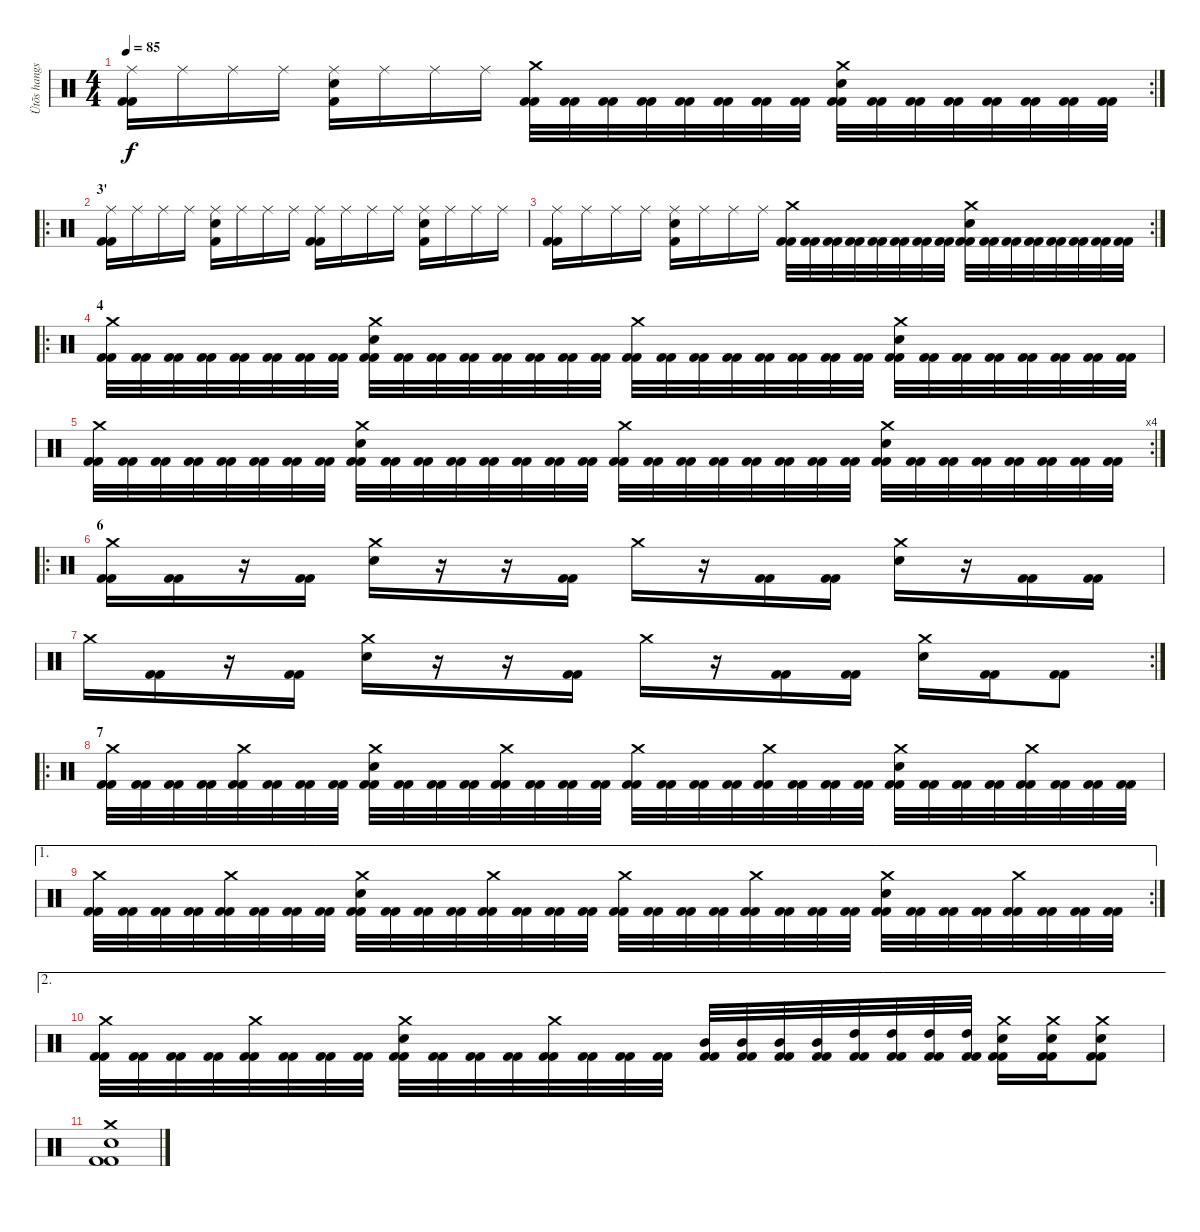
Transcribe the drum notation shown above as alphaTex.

\track ("Ütõs hangszer" "Ütõs hangs") {instrument percussion}
\staff {score}
\articulation defaults
\rc 2
\ts (4 4)
\tempo 85
\clef neutral
\ks c
("Kick (hit) 2" "Kick (hit) 2" "Ride (middle)").16{dy f} "Ride (middle)".16 "Ride (middle)".16 "Ride (middle)".16 ("Snare (hit) 2" "Kick (hit) 2" "Ride (middle)").16 "Ride (middle)".16 "Ride (middle)".16 "Ride (middle)".16 ("Crash medium (hit)" "Kick (hit) 2" "Kick (hit) 2").32 ("Kick (hit) 2" "Kick (hit) 2").32 ("Kick (hit) 2" "Kick (hit) 2").32 ("Kick (hit) 2" "Kick (hit) 2").32 ("Kick (hit) 2" "Kick (hit) 2").32 ("Kick (hit) 2" "Kick (hit) 2").32 ("Kick (hit) 2" "Kick (hit) 2").32 ("Kick (hit) 2" "Kick (hit) 2").32 ("Crash medium (hit)" "Snare (hit) 2" "Kick (hit) 2" "Kick (hit) 2").32 ("Kick (hit) 2" "Kick (hit) 2").32 ("Kick (hit) 2" "Kick (hit) 2").32 ("Kick (hit) 2" "Kick (hit) 2").32 ("Kick (hit) 2" "Kick (hit) 2").32 ("Kick (hit) 2" "Kick (hit) 2").32 ("Kick (hit) 2" "Kick (hit) 2").32 ("Kick (hit) 2" "Kick (hit) 2").32 |
\ro
\section ("" "3'")
("Kick (hit) 2" "Kick (hit) 2" "Ride (middle)").16 "Ride (middle)".16 "Ride (middle)".16 "Ride (middle)".16 ("Snare (hit) 2" "Kick (hit) 2" "Ride (middle)").16 "Ride (middle)".16 "Ride (middle)".16 "Ride (middle)".16 ("Kick (hit) 2" "Kick (hit) 2" "Ride (middle)").16 "Ride (middle)".16 "Ride (middle)".16 "Ride (middle)".16 ("Snare (hit) 2" "Kick (hit) 2" "Ride (middle)").16 "Ride (middle)".16 "Ride (middle)".16 "Ride (middle)".16 |
\rc 2
("Kick (hit) 2" "Kick (hit) 2" "Ride (middle)").16 "Ride (middle)".16 "Ride (middle)".16 "Ride (middle)".16 ("Snare (hit) 2" "Kick (hit) 2" "Ride (middle)").16 "Ride (middle)".16 "Ride (middle)".16 "Ride (middle)".16 ("Crash medium (hit)" "Kick (hit) 2" "Kick (hit) 2").32 ("Kick (hit) 2" "Kick (hit) 2").32 ("Kick (hit) 2" "Kick (hit) 2").32 ("Kick (hit) 2" "Kick (hit) 2").32 ("Kick (hit) 2" "Kick (hit) 2").32 ("Kick (hit) 2" "Kick (hit) 2").32 ("Kick (hit) 2" "Kick (hit) 2").32 ("Kick (hit) 2" "Kick (hit) 2").32 ("Crash medium (hit)" "Snare (hit) 2" "Kick (hit) 2" "Kick (hit) 2").32 ("Kick (hit) 2" "Kick (hit) 2").32 ("Kick (hit) 2" "Kick (hit) 2").32 ("Kick (hit) 2" "Kick (hit) 2").32 ("Kick (hit) 2" "Kick (hit) 2").32 ("Kick (hit) 2" "Kick (hit) 2").32 ("Kick (hit) 2" "Kick (hit) 2").32 ("Kick (hit) 2" "Kick (hit) 2").32 |
\ro
\section ("" "4")
("Crash medium (hit)" "Kick (hit) 2" "Kick (hit) 2").32 ("Kick (hit) 2" "Kick (hit) 2").32 ("Kick (hit) 2" "Kick (hit) 2").32 ("Kick (hit) 2" "Kick (hit) 2").32 ("Kick (hit) 2" "Kick (hit) 2").32 ("Kick (hit) 2" "Kick (hit) 2").32 ("Kick (hit) 2" "Kick (hit) 2").32 ("Kick (hit) 2" "Kick (hit) 2").32 ("Crash medium (hit)" "Snare (hit) 2" "Kick (hit) 2" "Kick (hit) 2").32 ("Kick (hit) 2" "Kick (hit) 2").32 ("Kick (hit) 2" "Kick (hit) 2").32 ("Kick (hit) 2" "Kick (hit) 2").32 ("Kick (hit) 2" "Kick (hit) 2").32 ("Kick (hit) 2" "Kick (hit) 2").32 ("Kick (hit) 2" "Kick (hit) 2").32 ("Kick (hit) 2" "Kick (hit) 2").32 ("Crash medium (hit)" "Kick (hit) 2" "Kick (hit) 2").32 ("Kick (hit) 2" "Kick (hit) 2").32 ("Kick (hit) 2" "Kick (hit) 2").32 ("Kick (hit) 2" "Kick (hit) 2").32 ("Kick (hit) 2" "Kick (hit) 2").32 ("Kick (hit) 2" "Kick (hit) 2").32 ("Kick (hit) 2" "Kick (hit) 2").32 ("Kick (hit) 2" "Kick (hit) 2").32 ("Crash medium (hit)" "Snare (hit) 2" "Kick (hit) 2" "Kick (hit) 2").32 ("Kick (hit) 2" "Kick (hit) 2").32 ("Kick (hit) 2" "Kick (hit) 2").32 ("Kick (hit) 2" "Kick (hit) 2").32 ("Kick (hit) 2" "Kick (hit) 2").32 ("Kick (hit) 2" "Kick (hit) 2").32 ("Kick (hit) 2" "Kick (hit) 2").32 ("Kick (hit) 2" "Kick (hit) 2").32 |
\rc 4
("Crash medium (hit)" "Kick (hit) 2" "Kick (hit) 2").32 ("Kick (hit) 2" "Kick (hit) 2").32 ("Kick (hit) 2" "Kick (hit) 2").32 ("Kick (hit) 2" "Kick (hit) 2").32 ("Kick (hit) 2" "Kick (hit) 2").32 ("Kick (hit) 2" "Kick (hit) 2").32 ("Kick (hit) 2" "Kick (hit) 2").32 ("Kick (hit) 2" "Kick (hit) 2").32 ("Crash medium (hit)" "Snare (hit) 2" "Kick (hit) 2" "Kick (hit) 2").32 ("Kick (hit) 2" "Kick (hit) 2").32 ("Kick (hit) 2" "Kick (hit) 2").32 ("Kick (hit) 2" "Kick (hit) 2").32 ("Kick (hit) 2" "Kick (hit) 2").32 ("Kick (hit) 2" "Kick (hit) 2").32 ("Kick (hit) 2" "Kick (hit) 2").32 ("Kick (hit) 2" "Kick (hit) 2").32 ("Crash medium (hit)" "Kick (hit) 2" "Kick (hit) 2").32 ("Kick (hit) 2" "Kick (hit) 2").32 ("Kick (hit) 2" "Kick (hit) 2").32 ("Kick (hit) 2" "Kick (hit) 2").32 ("Kick (hit) 2" "Kick (hit) 2").32 ("Kick (hit) 2" "Kick (hit) 2").32 ("Kick (hit) 2" "Kick (hit) 2").32 ("Kick (hit) 2" "Kick (hit) 2").32 ("Crash medium (hit)" "Snare (hit) 2" "Kick (hit) 2" "Kick (hit) 2").32 ("Kick (hit) 2" "Kick (hit) 2").32 ("Kick (hit) 2" "Kick (hit) 2").32 ("Kick (hit) 2" "Kick (hit) 2").32 ("Kick (hit) 2" "Kick (hit) 2").32 ("Kick (hit) 2" "Kick (hit) 2").32 ("Kick (hit) 2" "Kick (hit) 2").32 ("Kick (hit) 2" "Kick (hit) 2").32 |
\ro
\section ("" "6")
("Crash medium (hit)" "Kick (hit) 2" "Kick (hit) 2").16 ("Kick (hit) 2" "Kick (hit) 2").16 r.16 ("Kick (hit) 2" "Kick (hit) 2").16 ("Crash medium (hit)" "Snare (hit) 2").16 r.16 r.16 ("Kick (hit) 2" "Kick (hit) 2").16 "Crash medium (hit)".16 r.16 ("Kick (hit) 2" "Kick (hit) 2").16 ("Kick (hit) 2" "Kick (hit) 2").16 ("Crash medium (hit)" "Snare (hit) 2").16 r.16 ("Kick (hit) 2" "Kick (hit) 2").16 ("Kick (hit) 2" "Kick (hit) 2").16 |
\rc 2 "Crash medium (hit)".16
("Kick (hit) 2" "Kick (hit) 2").16 r.16 ("Kick (hit) 2" "Kick (hit) 2").16 ("Crash medium (hit)" "Snare (hit) 2").16 r.16 r.16 ("Kick (hit) 2" "Kick (hit) 2").16 "Crash medium (hit)".16 r.16 ("Kick (hit) 2" "Kick (hit) 2").16 ("Kick (hit) 2" "Kick (hit) 2").16 ("Crash medium (hit)" "Snare (hit) 2").16 ("Kick (hit) 2" "Kick (hit) 2").16 ("Kick (hit) 2" "Kick (hit) 2").8 |
\ro
\section ("" "7")
("Crash medium (hit)" "Kick (hit) 2" "Kick (hit) 2").32 ("Kick (hit) 2" "Kick (hit) 2").32 ("Kick (hit) 2" "Kick (hit) 2").32 ("Kick (hit) 2" "Kick (hit) 2").32 ("Crash medium (hit)" "Kick (hit) 2" "Kick (hit) 2").32 ("Kick (hit) 2" "Kick (hit) 2").32 ("Kick (hit) 2" "Kick (hit) 2").32 ("Kick (hit) 2" "Kick (hit) 2").32 ("Snare (hit) 2" "Crash medium (hit)" "Kick (hit) 2" "Kick (hit) 2").32 ("Kick (hit) 2" "Kick (hit) 2").32 ("Kick (hit) 2" "Kick (hit) 2").32 ("Kick (hit) 2" "Kick (hit) 2").32 ("Crash medium (hit)" "Kick (hit) 2" "Kick (hit) 2").32 ("Kick (hit) 2" "Kick (hit) 2").32 ("Kick (hit) 2" "Kick (hit) 2").32 ("Kick (hit) 2" "Kick (hit) 2").32 ("Crash medium (hit)" "Kick (hit) 2" "Kick (hit) 2").32 ("Kick (hit) 2" "Kick (hit) 2").32 ("Kick (hit) 2" "Kick (hit) 2").32 ("Kick (hit) 2" "Kick (hit) 2").32 ("Crash medium (hit)" "Kick (hit) 2" "Kick (hit) 2").32 ("Kick (hit) 2" "Kick (hit) 2").32 ("Kick (hit) 2" "Kick (hit) 2").32 ("Kick (hit) 2" "Kick (hit) 2").32 ("Snare (hit) 2" "Crash medium (hit)" "Kick (hit) 2" "Kick (hit) 2").32 ("Kick (hit) 2" "Kick (hit) 2").32 ("Kick (hit) 2" "Kick (hit) 2").32 ("Kick (hit) 2" "Kick (hit) 2").32 ("Crash medium (hit)" "Kick (hit) 2" "Kick (hit) 2").32 ("Kick (hit) 2" "Kick (hit) 2").32 ("Kick (hit) 2" "Kick (hit) 2").32 ("Kick (hit) 2" "Kick (hit) 2").32 |
\ae 1
\rc 2
("Crash medium (hit)" "Kick (hit) 2" "Kick (hit) 2").32 ("Kick (hit) 2" "Kick (hit) 2").32 ("Kick (hit) 2" "Kick (hit) 2").32 ("Kick (hit) 2" "Kick (hit) 2").32 ("Crash medium (hit)" "Kick (hit) 2" "Kick (hit) 2").32 ("Kick (hit) 2" "Kick (hit) 2").32 ("Kick (hit) 2" "Kick (hit) 2").32 ("Kick (hit) 2" "Kick (hit) 2").32 ("Snare (hit) 2" "Crash medium (hit)" "Kick (hit) 2" "Kick (hit) 2").32 ("Kick (hit) 2" "Kick (hit) 2").32 ("Kick (hit) 2" "Kick (hit) 2").32 ("Kick (hit) 2" "Kick (hit) 2").32 ("Crash medium (hit)" "Kick (hit) 2" "Kick (hit) 2").32 ("Kick (hit) 2" "Kick (hit) 2").32 ("Kick (hit) 2" "Kick (hit) 2").32 ("Kick (hit) 2" "Kick (hit) 2").32 ("Crash medium (hit)" "Kick (hit) 2" "Kick (hit) 2").32 ("Kick (hit) 2" "Kick (hit) 2").32 ("Kick (hit) 2" "Kick (hit) 2").32 ("Kick (hit) 2" "Kick (hit) 2").32 ("Crash medium (hit)" "Kick (hit) 2" "Kick (hit) 2").32 ("Kick (hit) 2" "Kick (hit) 2").32 ("Kick (hit) 2" "Kick (hit) 2").32 ("Kick (hit) 2" "Kick (hit) 2").32 ("Snare (hit) 2" "Crash medium (hit)" "Kick (hit) 2" "Kick (hit) 2").32 ("Kick (hit) 2" "Kick (hit) 2").32 ("Kick (hit) 2" "Kick (hit) 2").32 ("Kick (hit) 2" "Kick (hit) 2").32 ("Crash medium (hit)" "Kick (hit) 2" "Kick (hit) 2").32 ("Kick (hit) 2" "Kick (hit) 2").32 ("Kick (hit) 2" "Kick (hit) 2").32 ("Kick (hit) 2" "Kick (hit) 2").32 |
\ae 2
("Crash medium (hit)" "Kick (hit) 2" "Kick (hit) 2").32 ("Kick (hit) 2" "Kick (hit) 2").32 ("Kick (hit) 2" "Kick (hit) 2").32 ("Kick (hit) 2" "Kick (hit) 2").32 ("Crash medium (hit)" "Kick (hit) 2" "Kick (hit) 2").32 ("Kick (hit) 2" "Kick (hit) 2").32 ("Kick (hit) 2" "Kick (hit) 2").32 ("Kick (hit) 2" "Kick (hit) 2").32 ("Snare (hit) 2" "Crash medium (hit)" "Kick (hit) 2" "Kick (hit) 2").32 ("Kick (hit) 2" "Kick (hit) 2").32 ("Kick (hit) 2" "Kick (hit) 2").32 ("Kick (hit) 2" "Kick (hit) 2").32 ("Crash medium (hit)" "Kick (hit) 2" "Kick (hit) 2").32 ("Kick (hit) 2" "Kick (hit) 2").32 ("Kick (hit) 2" "Kick (hit) 2").32 ("Kick (hit) 2" "Kick (hit) 2").32 ("Mid Tom (hit)" "Kick (hit) 2" "Kick (hit) 2").32 ("Mid Tom (hit)" "Kick (hit) 2" "Kick (hit) 2").32 ("Mid Tom (hit)" "Kick (hit) 2" "Kick (hit) 2").32 ("Mid Tom (hit)" "Kick (hit) 2" "Kick (hit) 2").32 ("High Tom (hit)" "Kick (hit) 2" "Kick (hit) 2").32 ("High Tom (hit)" "Kick (hit) 2" "Kick (hit) 2").32 ("High Tom (hit)" "Kick (hit) 2" "Kick (hit) 2").32 ("High Tom (hit)" "Kick (hit) 2" "Kick (hit) 2").32 ("Crash medium (hit)" "Snare (hit) 2" "Kick (hit) 2" "Kick (hit) 2").16 ("Crash medium (hit)" "Snare (hit) 2" "Kick (hit) 2" "Kick (hit) 2").16 ("Crash medium (hit)" "Snare (hit) 2" "Kick (hit) 2" "Kick (hit) 2").8 |
("Crash medium (hit)" "Snare (hit) 2" "Kick (hit) 2" "Kick (hit) 2").1
